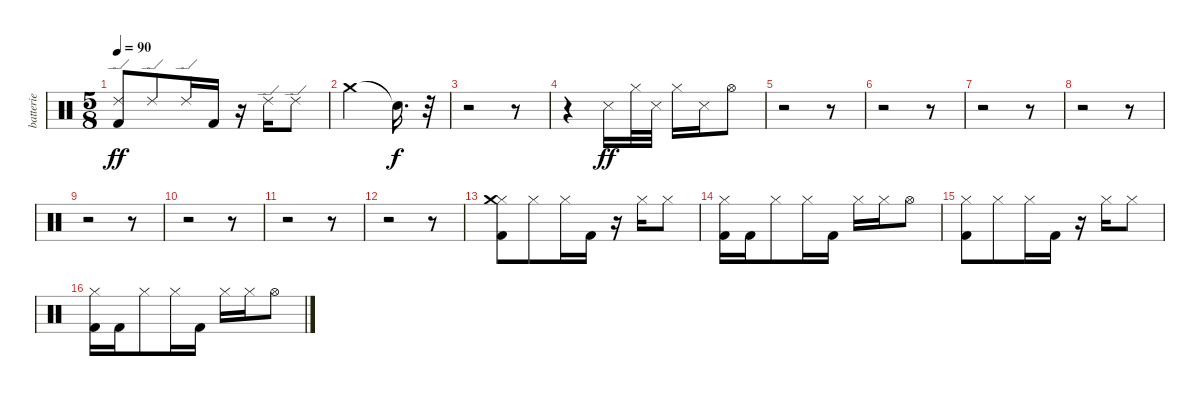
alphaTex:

\track ("batterie" "batterie") {instrument percussion}
\staff {score}
\articulation defaults
\ts (5 8)
\tempo 90
\clef neutral
\ks c
("Kick (hit) 2" "Ride (edge) 2").8{dy ff} "Ride (edge) 2".8 "Ride (edge) 2".16 "Kick (hit) 2".16 r.16 "Ride (edge) 2".16 "Ride (edge) 2".8 |
"Crash medium (hit)".2 "Snare (hit)"{t}.16{d dy f} r.32 |
r.2 r.8 |
r.4 "Snare (side stick) 3".16{dy ff} "Hi-Hat (closed)".32 "Snare (side stick) 3".32 "Hi-Hat (closed)".16 "Snare (side stick) 3".16 "Hi-Hat (open)".8 |
r.2 r.8 |
r.2 r.8 |
r.2 r.8 |
r.2 r.8 |
r.2 r.8 |
r.2 r.8 |
r.2 r.8 |
r.2 r.8 |
("Kick (hit) 2" "Hi-Hat (closed)" "Crash medium (hit)").8 "Hi-Hat (closed)".8 "Hi-Hat (closed)".16 "Kick (hit) 2".16 r.16 "Hi-Hat (closed)".16 "Hi-Hat (closed)".8 |
("Kick (hit) 2" "Hi-Hat (closed)").16 "Kick (hit) 2".16 "Hi-Hat (closed)".8 "Hi-Hat (closed)".16 "Kick (hit) 2".16 "Hi-Hat (closed)".16 "Hi-Hat (closed)".16 "Hi-Hat (open)".8 |
("Kick (hit) 2" "Hi-Hat (closed)").8 "Hi-Hat (closed)".8 "Hi-Hat (closed)".16 "Kick (hit) 2".16 r.16 "Hi-Hat (closed)".16 "Hi-Hat (closed)".8 |
("Kick (hit) 2" "Hi-Hat (closed)").16 "Kick (hit) 2".16 "Hi-Hat (closed)".8 "Hi-Hat (closed)".16 "Kick (hit) 2".16 "Hi-Hat (closed)".16 "Hi-Hat (closed)".16 "Hi-Hat (open)".8
